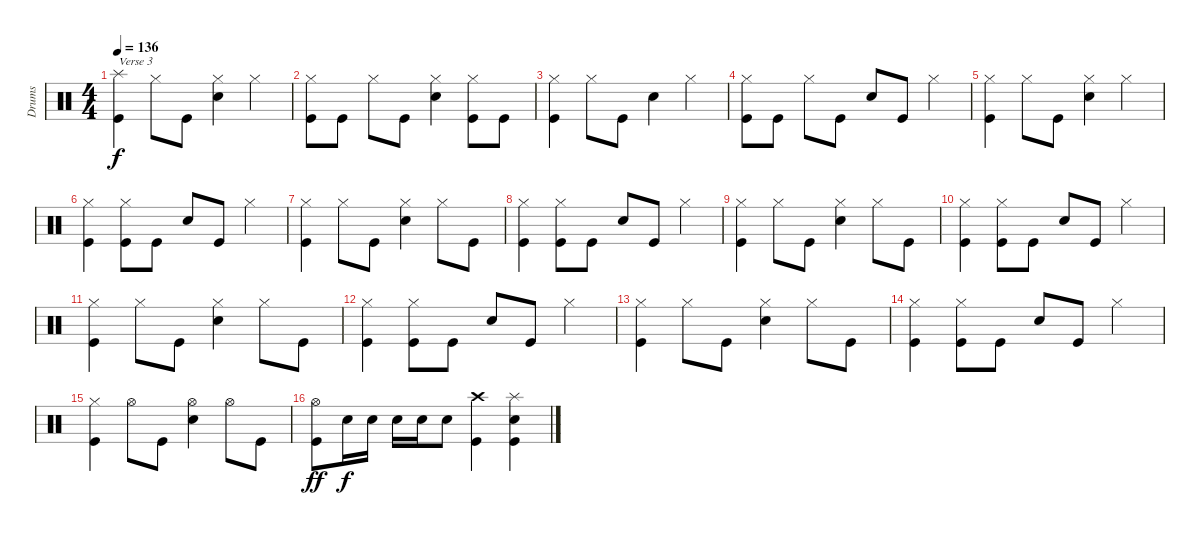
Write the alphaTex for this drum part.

\track ("Drums" "Drums") {instrument percussion}
\staff {score}
\articulation defaults
\ts (4 4)
\tempo 136
\clef neutral
\ks c
("Splash (hit)" "Kick (hit)").4{txt "Verse 3" dy f} "Hi-Hat (closed)".8 "Kick (hit)".8 ("Hi-Hat (closed)" "Snare (hit) 2").4 "Hi-Hat (closed)".4 |
("Hi-Hat (closed)" "Kick (hit)").8 "Kick (hit)".8 "Hi-Hat (closed)".8 "Kick (hit)".8 ("Hi-Hat (closed)" "Snare (hit) 2").4 ("Hi-Hat (closed)" "Kick (hit)").8 "Kick (hit)".8 |
("Hi-Hat (closed)" "Kick (hit)").4 "Hi-Hat (closed)".8 "Kick (hit)".8 "Snare (hit) 2".4 "Hi-Hat (closed)".4 |
("Hi-Hat (closed)" "Kick (hit)").8 "Kick (hit)".8 "Hi-Hat (closed)".8 "Kick (hit)".8 "Snare (hit) 2".8 "Kick (hit)".8 "Hi-Hat (closed)".4 |
("Hi-Hat (closed)" "Kick (hit)").4 "Hi-Hat (closed)".8 "Kick (hit)".8 ("Hi-Hat (closed)" "Snare (hit) 2").4 "Hi-Hat (closed)".4 |
("Hi-Hat (closed)" "Kick (hit)").4 ("Hi-Hat (closed)" "Kick (hit)").8 "Kick (hit)".8 "Snare (hit) 2".8 "Kick (hit)".8 "Hi-Hat (closed)".4 |
("Hi-Hat (closed)" "Kick (hit)").4 "Hi-Hat (closed)".8 "Kick (hit)".8 ("Hi-Hat (closed)" "Snare (hit) 2").4 "Hi-Hat (closed)".8 "Kick (hit)".8 |
("Hi-Hat (closed)" "Kick (hit)").4 ("Hi-Hat (closed)" "Kick (hit)").8 "Kick (hit)".8 "Snare (hit) 2".8 "Kick (hit)".8 "Hi-Hat (closed)".4 |
("Hi-Hat (closed)" "Kick (hit)").4 "Hi-Hat (closed)".8 "Kick (hit)".8 ("Hi-Hat (closed)" "Snare (hit) 2").4 "Hi-Hat (closed)".8 "Kick (hit)".8 |
("Hi-Hat (closed)" "Kick (hit)").4 ("Hi-Hat (closed)" "Kick (hit)").8 "Kick (hit)".8 "Snare (hit) 2".8 "Kick (hit)".8 "Hi-Hat (closed)".4 |
("Hi-Hat (closed)" "Kick (hit)").4 "Hi-Hat (closed)".8 "Kick (hit)".8 ("Hi-Hat (closed)" "Snare (hit) 2").4 "Hi-Hat (closed)".8 "Kick (hit)".8 |
("Hi-Hat (closed)" "Kick (hit)").4 ("Hi-Hat (closed)" "Kick (hit)").8 "Kick (hit)".8 "Snare (hit) 2".8 "Kick (hit)".8 "Hi-Hat (closed)".4 |
("Hi-Hat (closed)" "Kick (hit)").4 "Hi-Hat (closed)".8 "Kick (hit)".8 ("Hi-Hat (closed)" "Snare (hit) 2").4 "Hi-Hat (closed)".8 "Kick (hit)".8 |
("Hi-Hat (closed)" "Kick (hit)").4 ("Hi-Hat (closed)" "Kick (hit)").8 "Kick (hit)".8 "Snare (hit) 2".8 "Kick (hit)".8 "Hi-Hat (closed)".4 |
("Hi-Hat (closed)" "Kick (hit)").4 "Hi-Hat (open)".8 "Kick (hit)".8 ("Hi-Hat (open)" "Snare (hit) 2").4 "Hi-Hat (open)".8 "Kick (hit)".8 |
("Hi-Hat (open)" "Kick (hit)").8{dy ff} "Snare (hit) 2".16{dy f} "Snare (hit) 2".16 "Snare (hit) 2".16 "Snare (hit) 2".16 "Snare (hit) 2".8 ("Crash high (hit)" "Kick (hit)").4 ("Splash (hit)" "Snare (hit) 2" "Kick (hit)").4
